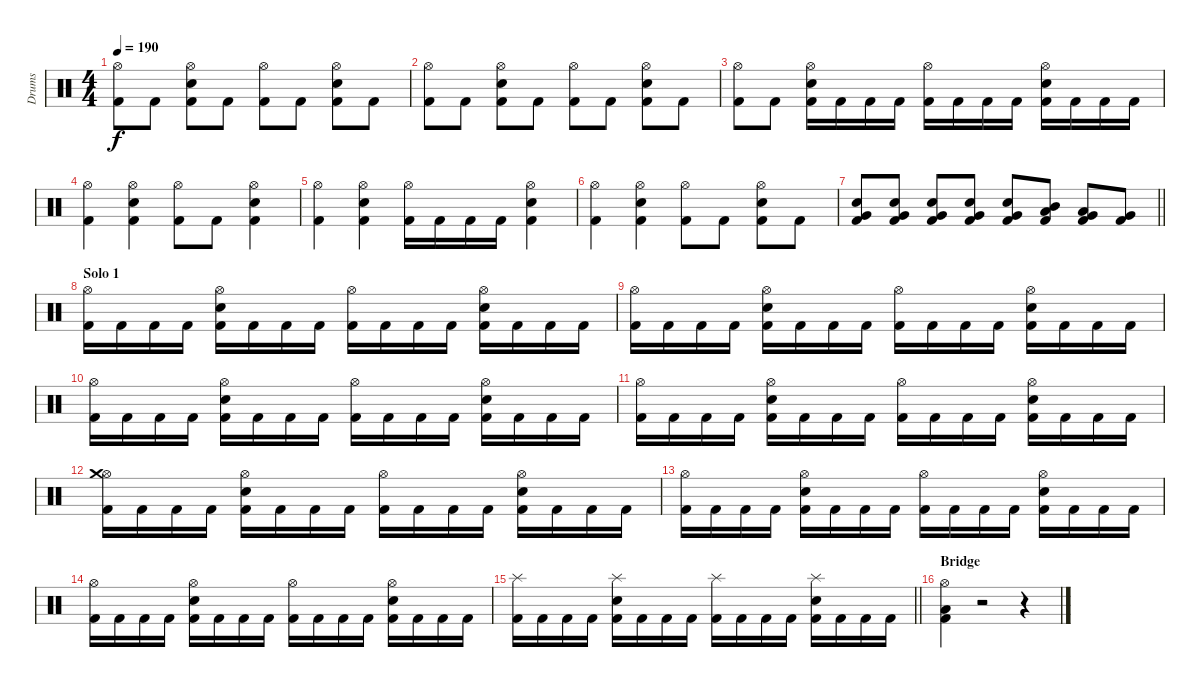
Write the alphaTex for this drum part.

\track ("Drums" "Drums") {instrument percussion}
\staff {score}
\articulation defaults
\ts (4 4)
\tempo 190
\clef neutral
\ks c
("Hi-Hat (open)" "Kick (hit) 2").8{dy f} "Kick (hit) 2".8 ("Hi-Hat (open)" "Snare (hit) 2" "Kick (hit) 2").8 "Kick (hit) 2".8 ("Hi-Hat (open)" "Kick (hit) 2").8 "Kick (hit) 2".8 ("Hi-Hat (open)" "Snare (hit) 2" "Kick (hit) 2").8 "Kick (hit) 2".8 |
("Hi-Hat (open)" "Kick (hit) 2").8 "Kick (hit) 2".8 ("Hi-Hat (open)" "Snare (hit) 2" "Kick (hit) 2").8 "Kick (hit) 2".8 ("Hi-Hat (open)" "Kick (hit) 2").8 "Kick (hit) 2".8 ("Hi-Hat (open)" "Snare (hit) 2" "Kick (hit) 2").8 "Kick (hit) 2".8 |
("Hi-Hat (open)" "Kick (hit) 2").8 "Kick (hit) 2".8 ("Hi-Hat (open)" "Snare (hit) 2" "Kick (hit) 2").16 "Kick (hit) 2".16 "Kick (hit) 2".16 "Kick (hit) 2".16 ("Hi-Hat (open)" "Kick (hit) 2").16 "Kick (hit) 2".16 "Kick (hit) 2".16 "Kick (hit) 2".16 ("Hi-Hat (open)" "Snare (hit) 2" "Kick (hit) 2").16 "Kick (hit) 2".16 "Kick (hit) 2".16 "Kick (hit) 2".16 |
("Hi-Hat (open)" "Kick (hit) 2").4 ("Hi-Hat (open)" "Snare (hit) 2" "Kick (hit) 2").4 ("Hi-Hat (open)" "Kick (hit) 2").8 "Kick (hit) 2".8 ("Hi-Hat (open)" "Snare (hit) 2" "Kick (hit) 2").4 |
("Hi-Hat (open)" "Kick (hit) 2").4 ("Hi-Hat (open)" "Snare (hit) 2" "Kick (hit) 2").4 ("Hi-Hat (open)" "Kick (hit) 2").16 "Kick (hit) 2".16 "Kick (hit) 2".16 "Kick (hit) 2".16 ("Hi-Hat (open)" "Snare (hit) 2" "Kick (hit) 2").4 |
("Hi-Hat (open)" "Kick (hit) 2").4 ("Hi-Hat (open)" "Snare (hit) 2" "Kick (hit) 2").4 ("Hi-Hat (open)" "Kick (hit) 2").8 "Kick (hit) 2".8 ("Hi-Hat (open)" "Snare (hit) 2" "Kick (hit) 2").8 "Kick (hit) 2".8 |
\barLineRight lightlight
("Very Low Tom (hit)" "Snare (hit) 2" "Kick (hit) 2").8 ("Very Low Tom (hit)" "Snare (hit) 2" "Kick (hit) 2").8 ("Very Low Tom (hit)" "Snare (hit) 2" "Kick (hit) 2").8 ("Very Low Tom (hit)" "Snare (hit) 2" "Kick (hit) 2").8 ("Very Low Tom (hit)" "Snare (hit) 2" "Kick (hit) 2").8 ("Mid Tom (hit)" "Low Tom (hit)" "Kick (hit) 2").8 ("Low Tom (hit)" "Very Low Tom (hit)" "Kick (hit) 2").8 ("Very Low Tom (hit)" "Kick (hit) 2").8 |
\section ("" "Solo 1")
("Hi-Hat (open)" "Kick (hit) 2").16 "Kick (hit) 2".16 "Kick (hit) 2".16 "Kick (hit) 2".16 ("Hi-Hat (open)" "Snare (hit) 2" "Kick (hit) 2").16 "Kick (hit) 2".16 "Kick (hit) 2".16 "Kick (hit) 2".16 ("Hi-Hat (open)" "Kick (hit) 2").16 "Kick (hit) 2".16 "Kick (hit) 2".16 "Kick (hit) 2".16 ("Hi-Hat (open)" "Snare (hit) 2" "Kick (hit) 2").16 "Kick (hit) 2".16 "Kick (hit) 2".16 "Kick (hit) 2".16 |
("Hi-Hat (open)" "Kick (hit) 2").16 "Kick (hit) 2".16 "Kick (hit) 2".16 "Kick (hit) 2".16 ("Hi-Hat (open)" "Snare (hit) 2" "Kick (hit) 2").16 "Kick (hit) 2".16 "Kick (hit) 2".16 "Kick (hit) 2".16 ("Hi-Hat (open)" "Kick (hit) 2").16 "Kick (hit) 2".16 "Kick (hit) 2".16 "Kick (hit) 2".16 ("Hi-Hat (open)" "Snare (hit) 2" "Kick (hit) 2").16 "Kick (hit) 2".16 "Kick (hit) 2".16 "Kick (hit) 2".16 |
("Hi-Hat (open)" "Kick (hit) 2").16 "Kick (hit) 2".16 "Kick (hit) 2".16 "Kick (hit) 2".16 ("Hi-Hat (open)" "Snare (hit) 2" "Kick (hit) 2").16 "Kick (hit) 2".16 "Kick (hit) 2".16 "Kick (hit) 2".16 ("Hi-Hat (open)" "Kick (hit) 2").16 "Kick (hit) 2".16 "Kick (hit) 2".16 "Kick (hit) 2".16 ("Hi-Hat (open)" "Snare (hit) 2" "Kick (hit) 2").16 "Kick (hit) 2".16 "Kick (hit) 2".16 "Kick (hit) 2".16 |
("Hi-Hat (open)" "Kick (hit) 2").16 "Kick (hit) 2".16 "Kick (hit) 2".16 "Kick (hit) 2".16 ("Hi-Hat (open)" "Snare (hit) 2" "Kick (hit) 2").16 "Kick (hit) 2".16 "Kick (hit) 2".16 "Kick (hit) 2".16 ("Hi-Hat (open)" "Kick (hit) 2").16 "Kick (hit) 2".16 "Kick (hit) 2".16 "Kick (hit) 2".16 ("Hi-Hat (open)" "Snare (hit) 2" "Kick (hit) 2").16 "Kick (hit) 2".16 "Kick (hit) 2".16 "Kick (hit) 2".16 |
("Hi-Hat (open)" "Crash medium (hit)" "Kick (hit) 2").16 "Kick (hit) 2".16 "Kick (hit) 2".16 "Kick (hit) 2".16 ("Hi-Hat (open)" "Snare (hit) 2" "Kick (hit) 2").16 "Kick (hit) 2".16 "Kick (hit) 2".16 "Kick (hit) 2".16 ("Hi-Hat (open)" "Kick (hit) 2").16 "Kick (hit) 2".16 "Kick (hit) 2".16 "Kick (hit) 2".16 ("Hi-Hat (open)" "Snare (hit) 2" "Kick (hit) 2").16 "Kick (hit) 2".16 "Kick (hit) 2".16 "Kick (hit) 2".16 |
("Hi-Hat (open)" "Kick (hit) 2").16 "Kick (hit) 2".16 "Kick (hit) 2".16 "Kick (hit) 2".16 ("Hi-Hat (open)" "Snare (hit) 2" "Kick (hit) 2").16 "Kick (hit) 2".16 "Kick (hit) 2".16 "Kick (hit) 2".16 ("Hi-Hat (open)" "Kick (hit) 2").16 "Kick (hit) 2".16 "Kick (hit) 2".16 "Kick (hit) 2".16 ("Hi-Hat (open)" "Snare (hit) 2" "Kick (hit) 2").16 "Kick (hit) 2".16 "Kick (hit) 2".16 "Kick (hit) 2".16 |
("Hi-Hat (open)" "Kick (hit) 2").16 "Kick (hit) 2".16 "Kick (hit) 2".16 "Kick (hit) 2".16 ("Hi-Hat (open)" "Snare (hit) 2" "Kick (hit) 2").16 "Kick (hit) 2".16 "Kick (hit) 2".16 "Kick (hit) 2".16 ("Hi-Hat (open)" "Kick (hit) 2").16 "Kick (hit) 2".16 "Kick (hit) 2".16 "Kick (hit) 2".16 ("Hi-Hat (open)" "Snare (hit) 2" "Kick (hit) 2").16 "Kick (hit) 2".16 "Kick (hit) 2".16 "Kick (hit) 2".16 |
\barLineRight lightlight
("Splash (hit)" "Kick (hit) 2").16 "Kick (hit) 2".16 "Kick (hit) 2".16 "Kick (hit) 2".16 ("Splash (hit)" "Snare (hit) 2" "Kick (hit) 2").16 "Kick (hit) 2".16 "Kick (hit) 2".16 "Kick (hit) 2".16 ("Splash (hit)" "Kick (hit) 2").16 "Kick (hit) 2".16 "Kick (hit) 2".16 "Kick (hit) 2".16 ("Splash (hit)" "Snare (hit) 2" "Kick (hit) 2").16 "Kick (hit) 2".16 "Kick (hit) 2".16 "Kick (hit) 2".16 |
\section ("" "Bridge")
("Hi-Hat (open)" "Low Tom (hit)" "Kick (hit) 2").4 r.2 r.4
